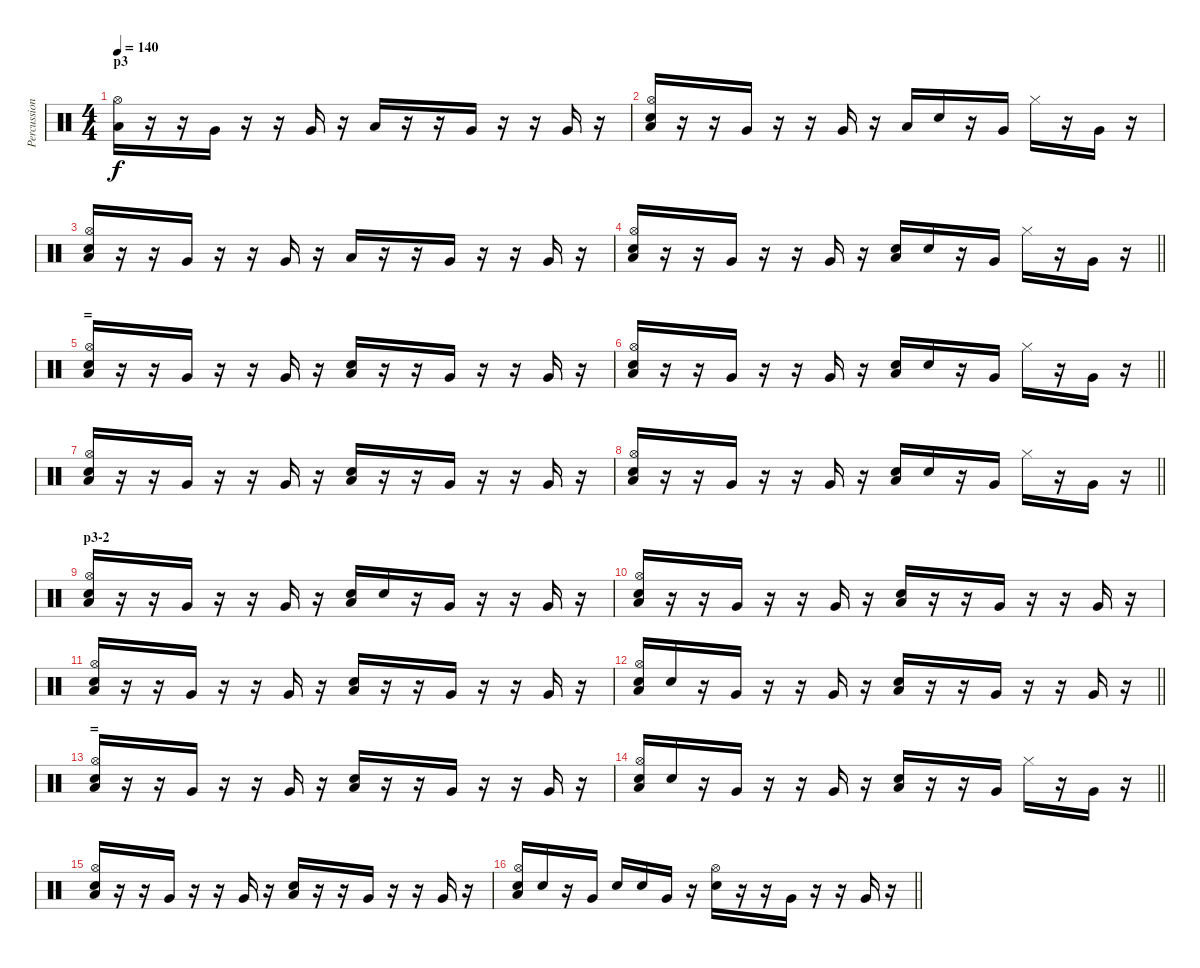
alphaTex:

\track ("Percussion" "Percussion") {instrument percussion}
\staff {score}
\articulation defaults
\ts (4 4)
\section ("" "p3")
\tempo 140
\clef neutral
\ks c
("Low Floor Tom (hit)" "Hi-Hat (open)").16{dy f} r.16 r.16 "Very Low Tom (hit)".16 r.16 r.16 "Very Low Tom (hit)".16 r.16 "Low Floor Tom (hit)".16 r.16 r.16 "Very Low Tom (hit)".16 r.16 r.16 "Very Low Tom (hit)".16 r.16 |
("Low Floor Tom (hit)" "Electric Snare (hit)" "Hi-Hat (open)").16 r.16 r.16 "Very Low Tom (hit)".16 r.16 r.16 "Very Low Tom (hit)".16 r.16 "Low Floor Tom (hit)".16 "Electric Snare (hit)".16 r.16 "Very Low Tom (hit)".16 "Hi-Hat (closed)".16 r.16 "Very Low Tom (hit)".16 r.16 |
("Low Floor Tom (hit)" "Electric Snare (hit)" "Hi-Hat (open)").16 r.16 r.16 "Very Low Tom (hit)".16 r.16 r.16 "Very Low Tom (hit)".16 r.16 "Low Floor Tom (hit)".16 r.16 r.16 "Very Low Tom (hit)".16 r.16 r.16 "Very Low Tom (hit)".16 r.16 |
\barLineRight lightlight
("Low Floor Tom (hit)" "Electric Snare (hit)" "Hi-Hat (open)").16 r.16 r.16 "Very Low Tom (hit)".16 r.16 r.16 "Very Low Tom (hit)".16 r.16 ("Low Floor Tom (hit)" "Electric Snare (hit)").16 "Electric Snare (hit)".16 r.16 "Very Low Tom (hit)".16 "Hi-Hat (closed)".16 r.16 "Very Low Tom (hit)".16 r.16 |
\section ("" "=")
("Low Floor Tom (hit)" "Electric Snare (hit)" "Hi-Hat (open)").16 r.16 r.16 "Very Low Tom (hit)".16 r.16 r.16 "Very Low Tom (hit)".16 r.16 ("Low Floor Tom (hit)" "Electric Snare (hit)").16 r.16 r.16 "Very Low Tom (hit)".16 r.16 r.16 "Very Low Tom (hit)".16 r.16 |
\barLineRight lightlight
("Low Floor Tom (hit)" "Electric Snare (hit)" "Hi-Hat (open)").16 r.16 r.16 "Very Low Tom (hit)".16 r.16 r.16 "Very Low Tom (hit)".16 r.16 ("Low Floor Tom (hit)" "Electric Snare (hit)").16 "Electric Snare (hit)".16 r.16 "Very Low Tom (hit)".16 "Hi-Hat (closed)".16 r.16 "Very Low Tom (hit)".16 r.16 |
("Low Floor Tom (hit)" "Electric Snare (hit)" "Hi-Hat (open)").16 r.16 r.16 "Very Low Tom (hit)".16 r.16 r.16 "Very Low Tom (hit)".16 r.16 ("Low Floor Tom (hit)" "Electric Snare (hit)").16 r.16 r.16 "Very Low Tom (hit)".16 r.16 r.16 "Very Low Tom (hit)".16 r.16 |
\barLineRight lightlight
("Low Floor Tom (hit)" "Electric Snare (hit)" "Hi-Hat (open)").16 r.16 r.16 "Very Low Tom (hit)".16 r.16 r.16 "Very Low Tom (hit)".16 r.16 ("Low Floor Tom (hit)" "Electric Snare (hit)").16 "Electric Snare (hit)".16 r.16 "Very Low Tom (hit)".16 "Hi-Hat (closed)".16 r.16 "Very Low Tom (hit)".16 r.16 |
\section ("" "p3-2")
("Low Floor Tom (hit)" "Electric Snare (hit)" "Hi-Hat (open)").16 r.16 r.16 "Very Low Tom (hit)".16 r.16 r.16 "Very Low Tom (hit)".16 r.16 ("Low Floor Tom (hit)" "Electric Snare (hit)").16 "Electric Snare (hit)".16 r.16 "Very Low Tom (hit)".16 r.16 r.16 "Very Low Tom (hit)".16 r.16 |
("Low Floor Tom (hit)" "Electric Snare (hit)" "Hi-Hat (open)").16 r.16 r.16 "Very Low Tom (hit)".16 r.16 r.16 "Very Low Tom (hit)".16 r.16 ("Low Floor Tom (hit)" "Electric Snare (hit)").16 r.16 r.16 "Very Low Tom (hit)".16 r.16 r.16 "Very Low Tom (hit)".16 r.16 |
("Low Floor Tom (hit)" "Electric Snare (hit)" "Hi-Hat (open)").16 r.16 r.16 "Very Low Tom (hit)".16 r.16 r.16 "Very Low Tom (hit)".16 r.16 ("Low Floor Tom (hit)" "Electric Snare (hit)").16 r.16 r.16 "Very Low Tom (hit)".16 r.16 r.16 "Very Low Tom (hit)".16 r.16 |
\barLineRight lightlight
("Low Floor Tom (hit)" "Electric Snare (hit)" "Hi-Hat (open)").16 "Electric Snare (hit)".16 r.16 "Very Low Tom (hit)".16 r.16 r.16 "Very Low Tom (hit)".16 r.16 ("Low Floor Tom (hit)" "Electric Snare (hit)").16 r.16 r.16 "Very Low Tom (hit)".16 r.16 r.16 "Very Low Tom (hit)".16 r.16 |
\section ("" "=")
("Low Floor Tom (hit)" "Electric Snare (hit)" "Hi-Hat (open)").16 r.16 r.16 "Very Low Tom (hit)".16 r.16 r.16 "Very Low Tom (hit)".16 r.16 ("Low Floor Tom (hit)" "Electric Snare (hit)").16 r.16 r.16 "Very Low Tom (hit)".16 r.16 r.16 "Very Low Tom (hit)".16 r.16 |
\barLineRight lightlight
("Low Floor Tom (hit)" "Electric Snare (hit)" "Hi-Hat (open)").16 "Electric Snare (hit)".16 r.16 "Very Low Tom (hit)".16 r.16 r.16 "Very Low Tom (hit)".16 r.16 ("Low Floor Tom (hit)" "Electric Snare (hit)").16 r.16 r.16 "Very Low Tom (hit)".16 "Hi-Hat (closed)".16 r.16 "Very Low Tom (hit)".16 r.16 |
("Low Floor Tom (hit)" "Electric Snare (hit)" "Hi-Hat (open)").16 r.16 r.16 "Very Low Tom (hit)".16 r.16 r.16 "Very Low Tom (hit)".16 r.16 ("Low Floor Tom (hit)" "Electric Snare (hit)").16 r.16 r.16 "Very Low Tom (hit)".16 r.16 r.16 "Very Low Tom (hit)".16 r.16 |
\barLineRight lightlight
("Low Floor Tom (hit)" "Electric Snare (hit)" "Hi-Hat (open)").16 "Electric Snare (hit)".16 r.16 "Very Low Tom (hit)".16 "Electric Snare (hit)".16 "Electric Snare (hit)".16 "Very Low Tom (hit)".16 r.16 ("Electric Snare (hit)" "Hi-Hat (open)").16 r.16 r.16 "Very Low Tom (hit)".16 r.16 r.16 "Very Low Tom (hit)".16 r.16
